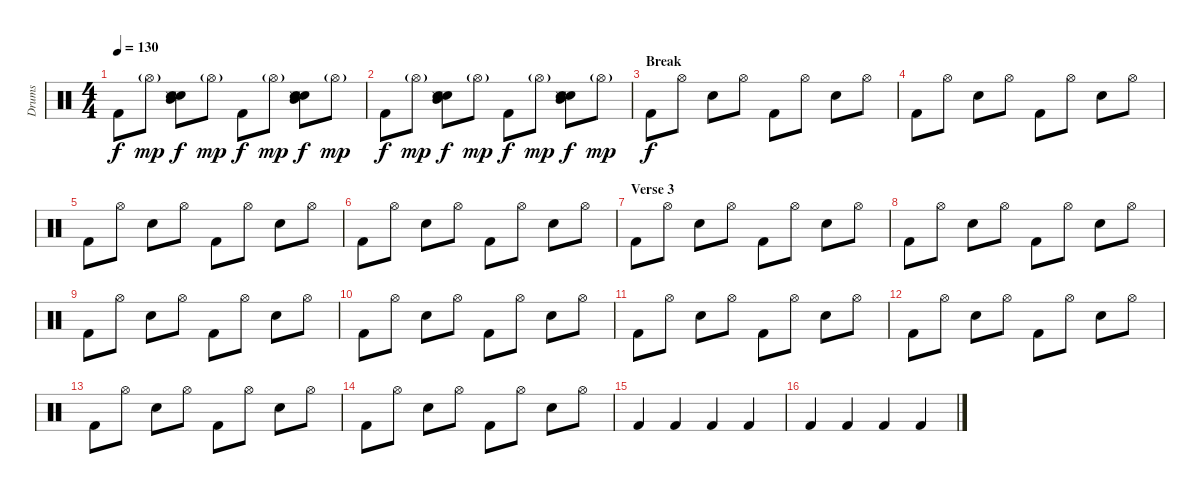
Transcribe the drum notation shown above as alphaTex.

\track ("Drums" "Drums") {instrument percussion}
\staff {score}
\articulation defaults
\ts (4 4)
\tempo 130
\clef neutral
\ks c "Kick (hit) 2".8{dy f} "Hi-Hat (open)"{g}.8{dy mp}
("Hand Clap (hit)" "Snare (side stick) 3" "Electric Snare (hit)" "Mid Tom (hit)").8{dy f} "Hi-Hat (open)"{g}.8{dy mp} "Kick (hit) 2".8{dy f} "Hi-Hat (open)"{g}.8{dy mp} ("Hand Clap (hit)" "Snare (side stick) 3" "Electric Snare (hit)" "Mid Tom (hit)").8{dy f} "Hi-Hat (open)"{g}.8{dy mp} |
"Kick (hit) 2".8{dy f} "Hi-Hat (open)"{g}.8{dy mp} ("Hand Clap (hit)" "Snare (side stick) 3" "Electric Snare (hit)" "Mid Tom (hit)").8{dy f} "Hi-Hat (open)"{g}.8{dy mp} "Kick (hit) 2".8{dy f} "Hi-Hat (open)"{g}.8{dy mp} ("Hand Clap (hit)" "Snare (side stick) 3" "Electric Snare (hit)" "Mid Tom (hit)").8{dy f} "Hi-Hat (open)"{g}.8{dy mp} |
\section ("" "Break")
"Kick (hit) 2".8{dy f} "Hi-Hat (open)".8 "Snare (hit) 2".8 "Hi-Hat (open)".8 "Kick (hit) 2".8 "Hi-Hat (open)".8 "Snare (hit) 2".8 "Hi-Hat (open)".8 |
"Kick (hit) 2".8 "Hi-Hat (open)".8 "Snare (hit) 2".8 "Hi-Hat (open)".8 "Kick (hit) 2".8 "Hi-Hat (open)".8 "Snare (hit) 2".8 "Hi-Hat (open)".8 |
"Kick (hit) 2".8 "Hi-Hat (open)".8 "Snare (hit) 2".8 "Hi-Hat (open)".8 "Kick (hit) 2".8 "Hi-Hat (open)".8 "Snare (hit) 2".8 "Hi-Hat (open)".8 |
"Kick (hit) 2".8 "Hi-Hat (open)".8 "Snare (hit) 2".8 "Hi-Hat (open)".8 "Kick (hit) 2".8 "Hi-Hat (open)".8 "Snare (hit) 2".8 "Hi-Hat (open)".8 |
\section ("" "Verse 3")
"Kick (hit) 2".8 "Hi-Hat (open)".8 "Snare (hit) 2".8 "Hi-Hat (open)".8 "Kick (hit) 2".8 "Hi-Hat (open)".8 "Snare (hit) 2".8 "Hi-Hat (open)".8 |
"Kick (hit) 2".8 "Hi-Hat (open)".8 "Snare (hit) 2".8 "Hi-Hat (open)".8 "Kick (hit) 2".8 "Hi-Hat (open)".8 "Snare (hit) 2".8 "Hi-Hat (open)".8 |
"Kick (hit) 2".8 "Hi-Hat (open)".8 "Snare (hit) 2".8 "Hi-Hat (open)".8 "Kick (hit) 2".8 "Hi-Hat (open)".8 "Snare (hit) 2".8 "Hi-Hat (open)".8 |
"Kick (hit) 2".8 "Hi-Hat (open)".8 "Snare (hit) 2".8 "Hi-Hat (open)".8 "Kick (hit) 2".8 "Hi-Hat (open)".8 "Snare (hit) 2".8 "Hi-Hat (open)".8 |
"Kick (hit) 2".8 "Hi-Hat (open)".8 "Snare (hit) 2".8 "Hi-Hat (open)".8 "Kick (hit) 2".8 "Hi-Hat (open)".8 "Snare (hit) 2".8 "Hi-Hat (open)".8 |
"Kick (hit) 2".8 "Hi-Hat (open)".8 "Snare (hit) 2".8 "Hi-Hat (open)".8 "Kick (hit) 2".8 "Hi-Hat (open)".8 "Snare (hit) 2".8 "Hi-Hat (open)".8 |
"Kick (hit) 2".8 "Hi-Hat (open)".8 "Snare (hit) 2".8 "Hi-Hat (open)".8 "Kick (hit) 2".8 "Hi-Hat (open)".8 "Snare (hit) 2".8 "Hi-Hat (open)".8 |
"Kick (hit) 2".8 "Hi-Hat (open)".8 "Snare (hit) 2".8 "Hi-Hat (open)".8 "Kick (hit) 2".8 "Hi-Hat (open)".8 "Snare (hit) 2".8 "Hi-Hat (open)".8 |
"Kick (hit) 2".4 "Kick (hit) 2".4 "Kick (hit) 2".4 "Kick (hit) 2".4 |
"Kick (hit) 2".4 "Kick (hit) 2".4 "Kick (hit) 2".4 "Kick (hit) 2".4
